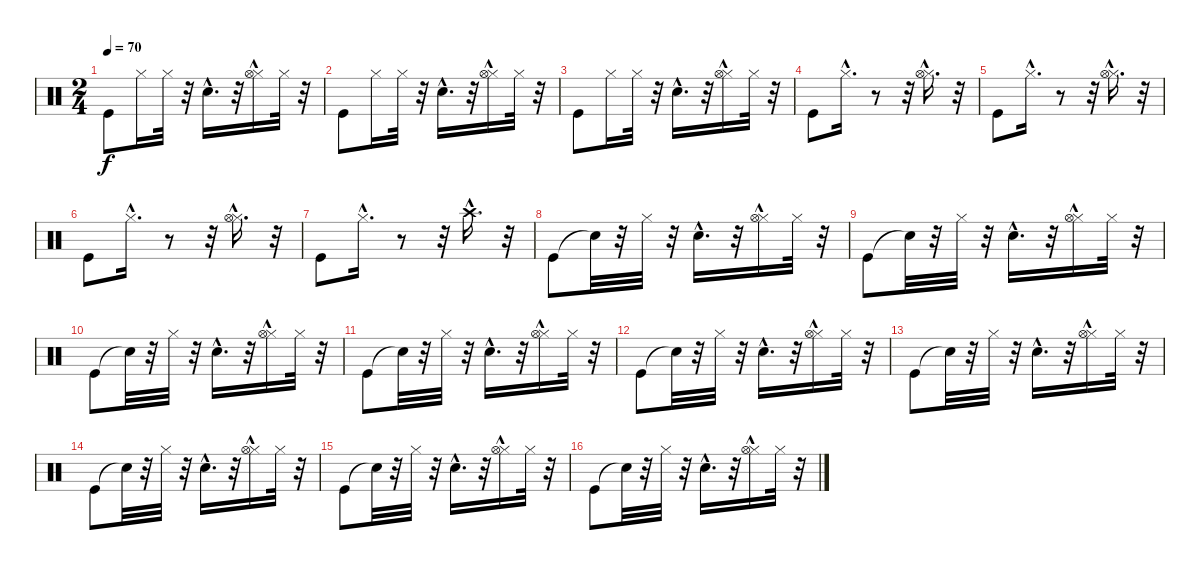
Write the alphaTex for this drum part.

\track "" {instrument percussion}
\staff {score}
\articulation defaults
\ts (2 4)
\tempo 70
\clef neutral
\ks c "Kick (hit)".8{dy f} "Hi-Hat (closed)".16 "Hi-Hat (closed)".32
r.32 "Electric Snare (hit)"{hac}.16{d} r.32 ("Hi-Hat (closed)" "Hi-Hat (open)"{hac}).16 "Hi-Hat (closed)".32 r.32 |
"Kick (hit)".8 "Hi-Hat (closed)".16 "Hi-Hat (closed)".32 r.32 "Electric Snare (hit)"{hac}.16{d} r.32 ("Hi-Hat (closed)" "Hi-Hat (open)"{hac}).16 "Hi-Hat (closed)".32 r.32 |
"Kick (hit)".8 "Hi-Hat (closed)".16 "Hi-Hat (closed)".32 r.32 "Electric Snare (hit)"{hac}.16{d} r.32 ("Hi-Hat (closed)" "Hi-Hat (open)"{hac}).16 "Hi-Hat (closed)".32 r.32 |
"Kick (hit)".8 "Hi-Hat (closed)"{hac}.16{d} r.8 r.32 ("Hi-Hat (closed)" "Hi-Hat (open)"{hac}).16{d} r.32 |
"Kick (hit)".8 "Hi-Hat (closed)"{hac}.16{d} r.8 r.32 ("Hi-Hat (closed)" "Hi-Hat (open)"{hac}).16{d} r.32 |
"Kick (hit)".8 "Hi-Hat (closed)"{hac}.16{d} r.8 r.32 ("Hi-Hat (closed)" "Hi-Hat (open)"{hac}).16{d} r.32 |
"Kick (hit)".8 "Hi-Hat (closed)"{hac}.16{d} r.8 r.32 "Crash high (hit)"{hac}.16{d} r.32 |
"Kick (hit)".8 "Snare (hit)"{t}.32 r.32 "Hi-Hat (closed)".32 r.32 "Electric Snare (hit)"{hac}.16{d} r.32 ("Hi-Hat (closed)" "Hi-Hat (open)"{hac}).16 "Hi-Hat (closed)".32 r.32 |
"Kick (hit)".8 "Snare (hit)"{t}.32 r.32 "Hi-Hat (closed)".32 r.32 "Electric Snare (hit)"{hac}.16{d} r.32 ("Hi-Hat (closed)" "Hi-Hat (open)"{hac}).16 "Hi-Hat (closed)".32 r.32 |
"Kick (hit)".8 "Snare (hit)"{t}.32 r.32 "Hi-Hat (closed)".32 r.32 "Electric Snare (hit)"{hac}.16{d} r.32 ("Hi-Hat (closed)" "Hi-Hat (open)"{hac}).16 "Hi-Hat (closed)".32 r.32 |
"Kick (hit)".8 "Snare (hit)"{t}.32 r.32 "Hi-Hat (closed)".32 r.32 "Electric Snare (hit)"{hac}.16{d} r.32 ("Hi-Hat (closed)" "Hi-Hat (open)"{hac}).16 "Hi-Hat (closed)".32 r.32 |
"Kick (hit)".8 "Snare (hit)"{t}.32 r.32 "Hi-Hat (closed)".32 r.32 "Electric Snare (hit)"{hac}.16{d} r.32 ("Hi-Hat (closed)" "Hi-Hat (open)"{hac}).16 "Hi-Hat (closed)".32 r.32 |
"Kick (hit)".8 "Snare (hit)"{t}.32 r.32 "Hi-Hat (closed)".32 r.32 "Electric Snare (hit)"{hac}.16{d} r.32 ("Hi-Hat (closed)" "Hi-Hat (open)"{hac}).16 "Hi-Hat (closed)".32 r.32 |
"Kick (hit)".8 "Snare (hit)"{t}.32 r.32 "Hi-Hat (closed)".32 r.32 "Electric Snare (hit)"{hac}.16{d} r.32 ("Hi-Hat (closed)" "Hi-Hat (open)"{hac}).16 "Hi-Hat (closed)".32 r.32 |
"Kick (hit)".8 "Snare (hit)"{t}.32 r.32 "Hi-Hat (closed)".32 r.32 "Electric Snare (hit)"{hac}.16{d} r.32 ("Hi-Hat (closed)" "Hi-Hat (open)"{hac}).16 "Hi-Hat (closed)".32 r.32 |
"Kick (hit)".8 "Snare (hit)"{t}.32 r.32 "Hi-Hat (closed)".32 r.32 "Electric Snare (hit)"{hac}.16{d} r.32 ("Hi-Hat (closed)" "Hi-Hat (open)"{hac}).16 "Hi-Hat (closed)".32 r.32
